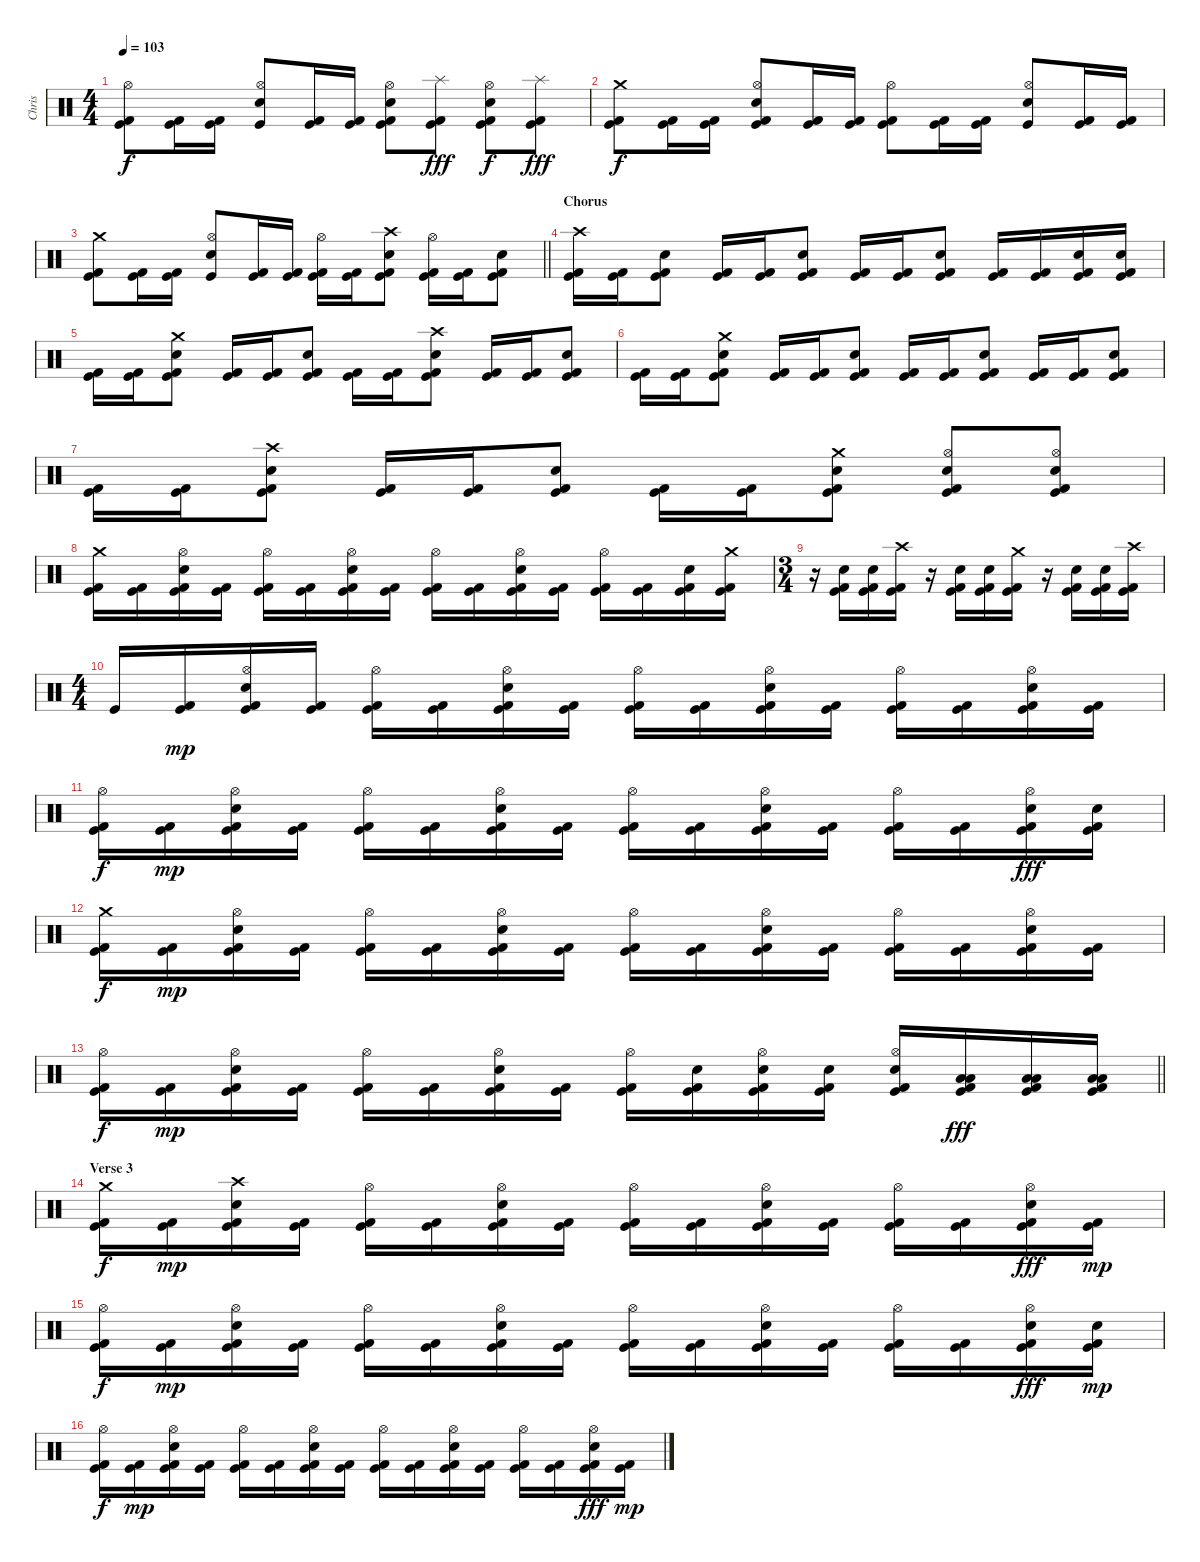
\track ("Chris" "Chris") {instrument percussion}
\staff {score}
\articulation defaults
\ts (4 4)
\tempo 103
\clef neutral
\ks c
("Kick (hit)" "Kick (hit) 2" "Hi-Hat (open)").8{dy f} ("Kick (hit)" "Kick (hit) 2").16 ("Kick (hit)" "Kick (hit) 2").16 ("Kick (hit)" "Electric Snare (hit)" "Hi-Hat (open)").8 ("Kick (hit)" "Kick (hit) 2").16 ("Kick (hit)" "Kick (hit) 2").16 ("Kick (hit)" "Kick (hit) 2" "Electric Snare (hit)" "Hi-Hat (open)").8 ("Kick (hit)" "Kick (hit) 2" "Splash (hit)").8{dy fff} ("Kick (hit)" "Kick (hit) 2" "Electric Snare (hit)" "Hi-Hat (open)").8{dy f} ("Kick (hit)" "Kick (hit) 2" "Splash (hit)").8{dy fff} |
("Kick (hit)" "Kick (hit) 2" "Crash medium (hit)").8{dy f} ("Kick (hit)" "Kick (hit) 2").16 ("Kick (hit)" "Kick (hit) 2").16 ("Kick (hit)" "Kick (hit) 2" "Electric Snare (hit)" "Hi-Hat (open)").8 ("Kick (hit)" "Kick (hit) 2").16 ("Kick (hit)" "Kick (hit) 2").16 ("Kick (hit)" "Kick (hit) 2" "Hi-Hat (open)").8 ("Kick (hit)" "Kick (hit) 2").16 ("Kick (hit)" "Kick (hit) 2").16 ("Kick (hit)" "Electric Snare (hit)" "Hi-Hat (open)").8 ("Kick (hit)" "Kick (hit) 2").16 ("Kick (hit)" "Kick (hit) 2").16 |
\barLineRight lightlight
("Kick (hit)" "Kick (hit) 2" "Crash medium (hit)").8 ("Kick (hit)" "Kick (hit) 2").16 ("Kick (hit)" "Kick (hit) 2").16 ("Kick (hit)" "Electric Snare (hit)" "Hi-Hat (open)").8 ("Kick (hit)" "Kick (hit) 2").16 ("Kick (hit)" "Kick (hit) 2").16 ("Kick (hit)" "Kick (hit) 2" "Hi-Hat (open)").16 ("Kick (hit)" "Kick (hit) 2").16 ("Kick (hit)" "Kick (hit) 2" "Electric Snare (hit)" "Crash high (hit)").8 ("Kick (hit)" "Kick (hit) 2" "Hi-Hat (open)").16 ("Kick (hit)" "Kick (hit) 2").16 ("Kick (hit)" "Kick (hit) 2" "Electric Snare (hit)").8 |
\section ("" "Chorus")
("Kick (hit)" "Kick (hit) 2" "Crash high (hit)").16 ("Kick (hit)" "Kick (hit) 2").16 ("Kick (hit)" "Kick (hit) 2" "Electric Snare (hit)").8 ("Kick (hit)" "Kick (hit) 2").16 ("Kick (hit)" "Kick (hit) 2").16 ("Kick (hit)" "Kick (hit) 2" "Electric Snare (hit)").8 ("Kick (hit)" "Kick (hit) 2").16 ("Kick (hit)" "Kick (hit) 2").16 ("Kick (hit)" "Kick (hit) 2" "Electric Snare (hit)").8 ("Kick (hit)" "Kick (hit) 2").16 ("Kick (hit)" "Kick (hit) 2").16 ("Kick (hit)" "Kick (hit) 2" "Electric Snare (hit)").16 ("Kick (hit)" "Kick (hit) 2" "Electric Snare (hit)").16 |
("Kick (hit)" "Kick (hit) 2").16 ("Kick (hit)" "Kick (hit) 2").16 ("Kick (hit)" "Kick (hit) 2" "Electric Snare (hit)" "Crash medium (hit)").8 ("Kick (hit)" "Kick (hit) 2").16 ("Kick (hit)" "Kick (hit) 2").16 ("Kick (hit)" "Kick (hit) 2" "Electric Snare (hit)").8 ("Kick (hit)" "Kick (hit) 2").16 ("Kick (hit)" "Kick (hit) 2").16 ("Kick (hit)" "Kick (hit) 2" "Electric Snare (hit)" "Crash high (hit)").8 ("Kick (hit)" "Kick (hit) 2").16 ("Kick (hit)" "Kick (hit) 2").16 ("Kick (hit)" "Kick (hit) 2" "Electric Snare (hit)").8 |
("Kick (hit)" "Kick (hit) 2").16 ("Kick (hit)" "Kick (hit) 2").16 ("Kick (hit)" "Kick (hit) 2" "Electric Snare (hit)" "Crash medium (hit)").8 ("Kick (hit)" "Kick (hit) 2").16 ("Kick (hit)" "Kick (hit) 2").16 ("Kick (hit)" "Kick (hit) 2" "Electric Snare (hit)").8 ("Kick (hit)" "Kick (hit) 2").16 ("Kick (hit)" "Kick (hit) 2").16 ("Kick (hit)" "Kick (hit) 2" "Electric Snare (hit)").8 ("Kick (hit)" "Kick (hit) 2").16 ("Kick (hit)" "Kick (hit) 2").16 ("Kick (hit)" "Kick (hit) 2" "Electric Snare (hit)").8 |
("Kick (hit)" "Kick (hit) 2").16 ("Kick (hit)" "Kick (hit) 2").16 ("Kick (hit)" "Kick (hit) 2" "Electric Snare (hit)" "Crash high (hit)").8 ("Kick (hit)" "Kick (hit) 2").16 ("Kick (hit)" "Kick (hit) 2").16 ("Kick (hit)" "Kick (hit) 2" "Electric Snare (hit)").8 ("Kick (hit)" "Kick (hit) 2").16 ("Kick (hit)" "Kick (hit) 2").16 ("Kick (hit)" "Kick (hit) 2" "Electric Snare (hit)" "Crash medium (hit)").8 ("Kick (hit)" "Kick (hit) 2" "Electric Snare (hit)" "Hi-Hat (open)").8 ("Kick (hit)" "Kick (hit) 2" "Electric Snare (hit)" "Hi-Hat (open)").8 |
("Kick (hit)" "Kick (hit) 2" "Crash medium (hit)").16 ("Kick (hit)" "Kick (hit) 2").16 ("Kick (hit)" "Kick (hit) 2" "Electric Snare (hit)" "Hi-Hat (open)").16 ("Kick (hit)" "Kick (hit) 2").16 ("Kick (hit)" "Kick (hit) 2" "Hi-Hat (open)").16 ("Kick (hit)" "Kick (hit) 2").16 ("Kick (hit)" "Kick (hit) 2" "Electric Snare (hit)" "Hi-Hat (open)").16 ("Kick (hit)" "Kick (hit) 2").16 ("Kick (hit)" "Kick (hit) 2" "Hi-Hat (open)").16 ("Kick (hit)" "Kick (hit) 2").16 ("Kick (hit)" "Kick (hit) 2" "Electric Snare (hit)" "Hi-Hat (open)").16 ("Kick (hit)" "Kick (hit) 2").16 ("Kick (hit)" "Kick (hit) 2" "Hi-Hat (open)").16 ("Kick (hit)" "Kick (hit) 2").16 ("Kick (hit)" "Kick (hit) 2" "Electric Snare (hit)").16 ("Kick (hit)" "Kick (hit) 2" "Crash medium (hit)").16 |
\ts (3 4)
r.16 ("Kick (hit)" "Kick (hit) 2" "Electric Snare (hit)").16 ("Kick (hit)" "Kick (hit) 2" "Electric Snare (hit)").16 ("Kick (hit)" "Kick (hit) 2" "Crash high (hit)").16 r.16 ("Kick (hit)" "Kick (hit) 2" "Electric Snare (hit)").16 ("Kick (hit)" "Kick (hit) 2" "Electric Snare (hit)").16 ("Kick (hit)" "Kick (hit) 2" "Crash medium (hit)").16 r.16 ("Kick (hit)" "Kick (hit) 2" "Electric Snare (hit)").16 ("Kick (hit)" "Kick (hit) 2" "Electric Snare (hit)").16 ("Kick (hit)" "Kick (hit) 2" "Crash high (hit)").16 |
\ts (4 4)
"Kick (hit)".16 ("Kick (hit)" "Kick (hit) 2").16{dy mp} ("Kick (hit)" "Kick (hit) 2" "Electric Snare (hit)" "Hi-Hat (open)").16 ("Kick (hit)" "Kick (hit) 2").16 ("Kick (hit)" "Kick (hit) 2" "Hi-Hat (open)").16 ("Kick (hit)" "Kick (hit) 2").16 ("Kick (hit)" "Kick (hit) 2" "Electric Snare (hit)" "Hi-Hat (open)").16 ("Kick (hit)" "Kick (hit) 2").16 ("Kick (hit)" "Kick (hit) 2" "Hi-Hat (open)").16 ("Kick (hit)" "Kick (hit) 2").16 ("Kick (hit)" "Kick (hit) 2" "Electric Snare (hit)" "Hi-Hat (open)").16 ("Kick (hit)" "Kick (hit) 2").16 ("Kick (hit)" "Kick (hit) 2" "Hi-Hat (open)").16 ("Kick (hit)" "Kick (hit) 2").16 ("Kick (hit)" "Kick (hit) 2" "Electric Snare (hit)" "Hi-Hat (open)").16 ("Kick (hit)" "Kick (hit) 2").16 |
("Kick (hit)" "Kick (hit) 2" "Hi-Hat (open)").16{dy f} ("Kick (hit)" "Kick (hit) 2").16{dy mp} ("Kick (hit)" "Kick (hit) 2" "Electric Snare (hit)" "Hi-Hat (open)").16 ("Kick (hit)" "Kick (hit) 2").16 ("Kick (hit)" "Kick (hit) 2" "Hi-Hat (open)").16 ("Kick (hit)" "Kick (hit) 2").16 ("Kick (hit)" "Kick (hit) 2" "Electric Snare (hit)" "Hi-Hat (open)").16 ("Kick (hit)" "Kick (hit) 2").16 ("Kick (hit)" "Kick (hit) 2" "Hi-Hat (open)").16 ("Kick (hit)" "Kick (hit) 2").16 ("Kick (hit)" "Kick (hit) 2" "Electric Snare (hit)" "Hi-Hat (open)").16 ("Kick (hit)" "Kick (hit) 2").16 ("Kick (hit)" "Kick (hit) 2" "Hi-Hat (open)").16 ("Kick (hit)" "Kick (hit) 2").16 ("Kick (hit)" "Kick (hit) 2" "Electric Snare (hit)" "Hi-Hat (open)").16{dy fff} ("Kick (hit)" "Kick (hit) 2" "Electric Snare (hit)").16 |
("Kick (hit)" "Kick (hit) 2" "Crash medium (hit)").16{dy f} ("Kick (hit)" "Kick (hit) 2").16{dy mp} ("Kick (hit)" "Kick (hit) 2" "Electric Snare (hit)" "Hi-Hat (open)").16 ("Kick (hit)" "Kick (hit) 2").16 ("Kick (hit)" "Kick (hit) 2" "Hi-Hat (open)").16 ("Kick (hit)" "Kick (hit) 2").16 ("Kick (hit)" "Kick (hit) 2" "Electric Snare (hit)" "Hi-Hat (open)").16 ("Kick (hit)" "Kick (hit) 2").16 ("Kick (hit)" "Kick (hit) 2" "Hi-Hat (open)").16 ("Kick (hit)" "Kick (hit) 2").16 ("Kick (hit)" "Kick (hit) 2" "Electric Snare (hit)" "Hi-Hat (open)").16 ("Kick (hit)" "Kick (hit) 2").16 ("Kick (hit)" "Kick (hit) 2" "Hi-Hat (open)").16 ("Kick (hit)" "Kick (hit) 2").16 ("Kick (hit)" "Kick (hit) 2" "Electric Snare (hit)" "Hi-Hat (open)").16 ("Kick (hit)" "Kick (hit) 2").16 |
\barLineRight lightlight
("Kick (hit)" "Kick (hit) 2" "Hi-Hat (open)").16{dy f} ("Kick (hit)" "Kick (hit) 2").16{dy mp} ("Kick (hit)" "Kick (hit) 2" "Electric Snare (hit)" "Hi-Hat (open)").16 ("Kick (hit)" "Kick (hit) 2").16 ("Kick (hit)" "Kick (hit) 2" "Hi-Hat (open)").16 ("Kick (hit)" "Kick (hit) 2").16 ("Kick (hit)" "Kick (hit) 2" "Electric Snare (hit)" "Hi-Hat (open)").16 ("Kick (hit)" "Kick (hit) 2").16 ("Kick (hit)" "Kick (hit) 2" "Hi-Hat (open)").16 ("Kick (hit)" "Kick (hit) 2" "Electric Snare (hit)").16 ("Kick (hit)" "Kick (hit) 2" "Electric Snare (hit)" "Hi-Hat (open)").16 ("Kick (hit)" "Kick (hit) 2" "Electric Snare (hit)").16 ("Kick (hit)" "Kick (hit) 2" "Electric Snare (hit)" "Hi-Hat (open)").16 ("Kick (hit)" "Kick (hit) 2" "Low Tom (hit)" "Low Tom (hit)").16{dy fff} ("Kick (hit)" "Kick (hit) 2" "Low Tom (hit)" "Low Tom (hit)").16 ("Kick (hit)" "Kick (hit) 2" "Low Tom (hit)" "Low Tom (hit)").16 |
\section ("" "Verse 3")
("Kick (hit)" "Kick (hit) 2" "Crash medium (hit)").16{dy f} ("Kick (hit)" "Kick (hit) 2").16{dy mp} ("Kick (hit)" "Kick (hit) 2" "Electric Snare (hit)" "Crash high (hit)").16 ("Kick (hit)" "Kick (hit) 2").16 ("Kick (hit)" "Kick (hit) 2" "Hi-Hat (open)").16 ("Kick (hit)" "Kick (hit) 2").16 ("Kick (hit)" "Kick (hit) 2" "Electric Snare (hit)" "Hi-Hat (open)").16 ("Kick (hit)" "Kick (hit) 2").16 ("Kick (hit)" "Kick (hit) 2" "Hi-Hat (open)").16 ("Kick (hit)" "Kick (hit) 2").16 ("Kick (hit)" "Kick (hit) 2" "Electric Snare (hit)" "Hi-Hat (open)").16 ("Kick (hit)" "Kick (hit) 2").16 ("Kick (hit)" "Kick (hit) 2" "Hi-Hat (open)").16 ("Kick (hit)" "Kick (hit) 2").16 ("Kick (hit)" "Kick (hit) 2" "Electric Snare (hit)" "Hi-Hat (open)").16{dy fff} ("Kick (hit)" "Kick (hit) 2").16{dy mp} |
("Kick (hit)" "Kick (hit) 2" "Hi-Hat (open)").16{dy f} ("Kick (hit)" "Kick (hit) 2").16{dy mp} ("Kick (hit)" "Kick (hit) 2" "Electric Snare (hit)" "Hi-Hat (open)").16 ("Kick (hit)" "Kick (hit) 2").16 ("Kick (hit)" "Kick (hit) 2" "Hi-Hat (open)").16 ("Kick (hit)" "Kick (hit) 2").16 ("Kick (hit)" "Kick (hit) 2" "Electric Snare (hit)" "Hi-Hat (open)").16 ("Kick (hit)" "Kick (hit) 2").16 ("Kick (hit)" "Kick (hit) 2" "Hi-Hat (open)").16 ("Kick (hit)" "Kick (hit) 2").16 ("Kick (hit)" "Kick (hit) 2" "Electric Snare (hit)" "Hi-Hat (open)").16 ("Kick (hit)" "Kick (hit) 2").16 ("Kick (hit)" "Kick (hit) 2" "Hi-Hat (open)").16 ("Kick (hit)" "Kick (hit) 2").16 ("Kick (hit)" "Kick (hit) 2" "Electric Snare (hit)" "Hi-Hat (open)").16{dy fff} ("Kick (hit)" "Kick (hit) 2" "Electric Snare (hit)").16{dy mp} |
("Kick (hit)" "Kick (hit) 2" "Hi-Hat (open)").16{dy f} ("Kick (hit)" "Kick (hit) 2").16{dy mp} ("Kick (hit)" "Kick (hit) 2" "Electric Snare (hit)" "Hi-Hat (open)").16 ("Kick (hit)" "Kick (hit) 2").16 ("Kick (hit)" "Kick (hit) 2" "Hi-Hat (open)").16 ("Kick (hit)" "Kick (hit) 2").16 ("Kick (hit)" "Kick (hit) 2" "Electric Snare (hit)" "Hi-Hat (open)").16 ("Kick (hit)" "Kick (hit) 2").16 ("Kick (hit)" "Kick (hit) 2" "Hi-Hat (open)").16 ("Kick (hit)" "Kick (hit) 2").16 ("Kick (hit)" "Kick (hit) 2" "Electric Snare (hit)" "Hi-Hat (open)").16 ("Kick (hit)" "Kick (hit) 2").16 ("Kick (hit)" "Kick (hit) 2" "Hi-Hat (open)").16 ("Kick (hit)" "Kick (hit) 2").16 ("Kick (hit)" "Kick (hit) 2" "Electric Snare (hit)" "Hi-Hat (open)").16{dy fff} ("Kick (hit)" "Kick (hit) 2").16{dy mp}
